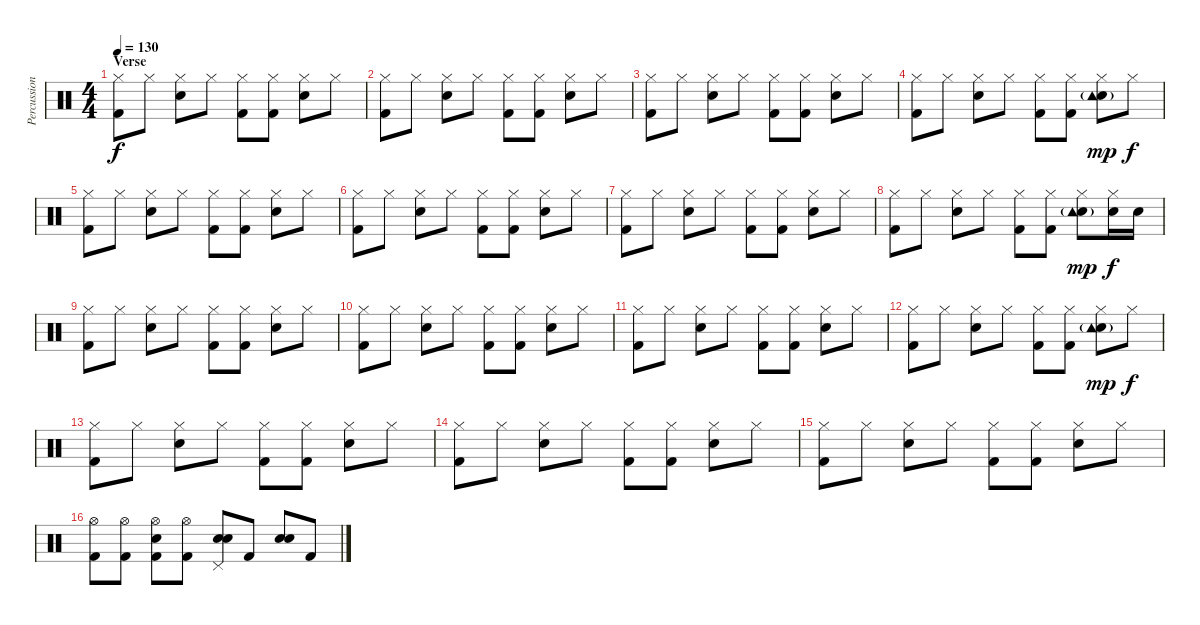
\track ("Percussion" "Percussion") {instrument percussion}
\staff {score}
\articulation defaults
\ts (4 4)
\section ("" "Verse")
\tempo 130
\clef neutral
\ks c
("Kick (hit) 2" "Hi-Hat (closed)").8{dy f} "Hi-Hat (closed)".8 ("Electric Snare (hit)" "Hi-Hat (closed)").8 "Hi-Hat (closed)".8 ("Kick (hit) 2" "Hi-Hat (closed)").8 ("Kick (hit) 2" "Hi-Hat (closed)").8 ("Electric Snare (hit)" "Hi-Hat (closed)").8 "Hi-Hat (closed)".8 |
("Kick (hit) 2" "Hi-Hat (closed)").8 "Hi-Hat (closed)".8 ("Electric Snare (hit)" "Hi-Hat (closed)").8 "Hi-Hat (closed)".8 ("Kick (hit) 2" "Hi-Hat (closed)").8 ("Kick (hit) 2" "Hi-Hat (closed)").8 ("Electric Snare (hit)" "Hi-Hat (closed)").8 "Hi-Hat (closed)".8 |
("Kick (hit) 2" "Hi-Hat (closed)").8 "Hi-Hat (closed)".8 ("Electric Snare (hit)" "Hi-Hat (closed)").8 "Hi-Hat (closed)".8 ("Kick (hit) 2" "Hi-Hat (closed)").8 ("Kick (hit) 2" "Hi-Hat (closed)").8 ("Electric Snare (hit)" "Hi-Hat (closed)").8 "Hi-Hat (closed)".8 |
("Kick (hit) 2" "Hi-Hat (closed)").8 "Hi-Hat (closed)".8 ("Electric Snare (hit)" "Hi-Hat (closed)").8 "Hi-Hat (closed)".8 ("Kick (hit) 2" "Hi-Hat (closed)").8 ("Kick (hit) 2" "Hi-Hat (closed)").8 ("Electric Snare (hit)" "Hi-Hat (closed)" "Tambourine (hit)"{g}).8{dy mp} "Hi-Hat (closed)".8{dy f} |
("Kick (hit) 2" "Hi-Hat (closed)").8 "Hi-Hat (closed)".8 ("Electric Snare (hit)" "Hi-Hat (closed)").8 "Hi-Hat (closed)".8 ("Kick (hit) 2" "Hi-Hat (closed)").8 ("Kick (hit) 2" "Hi-Hat (closed)").8 ("Electric Snare (hit)" "Hi-Hat (closed)").8 "Hi-Hat (closed)".8 |
("Kick (hit) 2" "Hi-Hat (closed)").8 "Hi-Hat (closed)".8 ("Electric Snare (hit)" "Hi-Hat (closed)").8 "Hi-Hat (closed)".8 ("Kick (hit) 2" "Hi-Hat (closed)").8 ("Kick (hit) 2" "Hi-Hat (closed)").8 ("Electric Snare (hit)" "Hi-Hat (closed)").8 "Hi-Hat (closed)".8 |
("Kick (hit) 2" "Hi-Hat (closed)").8 "Hi-Hat (closed)".8 ("Electric Snare (hit)" "Hi-Hat (closed)").8 "Hi-Hat (closed)".8 ("Kick (hit) 2" "Hi-Hat (closed)").8 ("Kick (hit) 2" "Hi-Hat (closed)").8 ("Electric Snare (hit)" "Hi-Hat (closed)").8 "Hi-Hat (closed)".8 |
("Kick (hit) 2" "Hi-Hat (closed)").8 "Hi-Hat (closed)".8 ("Electric Snare (hit)" "Hi-Hat (closed)").8 "Hi-Hat (closed)".8 ("Kick (hit) 2" "Hi-Hat (closed)").8 ("Kick (hit) 2" "Hi-Hat (closed)").8 ("Electric Snare (hit)" "Hi-Hat (closed)" "Tambourine (hit)"{g}).8{dy mp} ("Electric Snare (hit)" "Hi-Hat (closed)").16{dy f} "Electric Snare (hit)".16 |
("Kick (hit) 2" "Hi-Hat (closed)").8 "Hi-Hat (closed)".8 ("Electric Snare (hit)" "Hi-Hat (closed)").8 "Hi-Hat (closed)".8 ("Kick (hit) 2" "Hi-Hat (closed)").8 ("Kick (hit) 2" "Hi-Hat (closed)").8 ("Electric Snare (hit)" "Hi-Hat (closed)").8 "Hi-Hat (closed)".8 |
("Kick (hit) 2" "Hi-Hat (closed)").8 "Hi-Hat (closed)".8 ("Electric Snare (hit)" "Hi-Hat (closed)").8 "Hi-Hat (closed)".8 ("Kick (hit) 2" "Hi-Hat (closed)").8 ("Kick (hit) 2" "Hi-Hat (closed)").8 ("Electric Snare (hit)" "Hi-Hat (closed)").8 "Hi-Hat (closed)".8 |
("Kick (hit) 2" "Hi-Hat (closed)").8 "Hi-Hat (closed)".8 ("Electric Snare (hit)" "Hi-Hat (closed)").8 "Hi-Hat (closed)".8 ("Kick (hit) 2" "Hi-Hat (closed)").8 ("Kick (hit) 2" "Hi-Hat (closed)").8 ("Electric Snare (hit)" "Hi-Hat (closed)").8 "Hi-Hat (closed)".8 |
("Kick (hit) 2" "Hi-Hat (closed)").8 "Hi-Hat (closed)".8 ("Electric Snare (hit)" "Hi-Hat (closed)").8 "Hi-Hat (closed)".8 ("Kick (hit) 2" "Hi-Hat (closed)").8 ("Kick (hit) 2" "Hi-Hat (closed)").8 ("Electric Snare (hit)" "Hi-Hat (closed)" "Tambourine (hit)"{g}).8{dy mp} "Hi-Hat (closed)".8{dy f} |
("Kick (hit) 2" "Hi-Hat (closed)").8 "Hi-Hat (closed)".8 ("Electric Snare (hit)" "Hi-Hat (closed)").8 "Hi-Hat (closed)".8 ("Kick (hit) 2" "Hi-Hat (closed)").8 ("Kick (hit) 2" "Hi-Hat (closed)").8 ("Electric Snare (hit)" "Hi-Hat (closed)").8 "Hi-Hat (closed)".8 |
("Kick (hit) 2" "Hi-Hat (closed)").8 "Hi-Hat (closed)".8 ("Electric Snare (hit)" "Hi-Hat (closed)").8 "Hi-Hat (closed)".8 ("Kick (hit) 2" "Hi-Hat (closed)").8 ("Kick (hit) 2" "Hi-Hat (closed)").8 ("Electric Snare (hit)" "Hi-Hat (closed)").8 "Hi-Hat (closed)".8 |
("Kick (hit) 2" "Hi-Hat (closed)").8 "Hi-Hat (closed)".8 ("Electric Snare (hit)" "Hi-Hat (closed)").8 "Hi-Hat (closed)".8 ("Kick (hit) 2" "Hi-Hat (closed)").8 ("Kick (hit) 2" "Hi-Hat (closed)").8 ("Electric Snare (hit)" "Hi-Hat (closed)").8 "Hi-Hat (closed)".8 |
("Kick (hit) 2" "Hi-Hat (open)").8 ("Kick (hit) 2" "Hi-Hat (open)").8 ("Kick (hit) 2" "Electric Snare (hit)" "Hi-Hat (open)").8 ("Kick (hit) 2" "Hi-Hat (open)").8 ("Electric Snare (hit)" "Electric Snare (hit)" "Pedal Hi-Hat (hit)").8 "Kick (hit) 2".8 ("Electric Snare (hit)" "Electric Snare (hit)").8 "Kick (hit) 2".8
